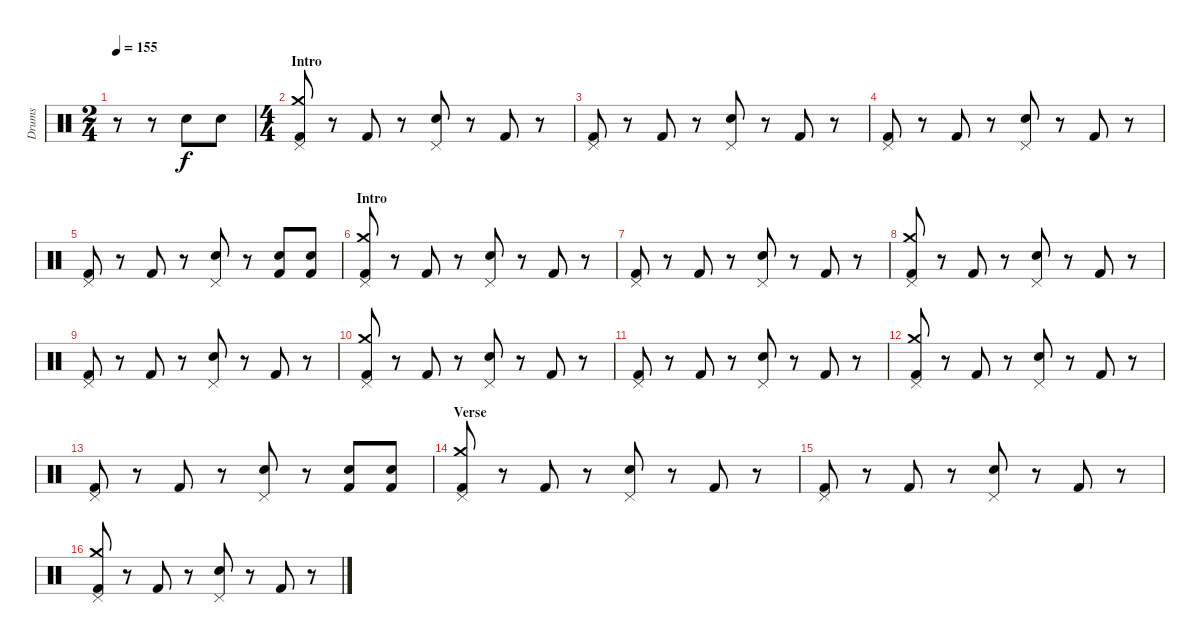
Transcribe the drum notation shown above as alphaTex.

\track ("Drums" "Drums") {instrument percussion}
\staff {score}
\articulation defaults
\ts (2 4)
\tempo 155
\clef neutral
\ks c
r.8{dy f} r.8 "Snare (hit) 2".8 "Snare (hit) 2".8 |
\ts (4 4)
\section ("" "Intro")
("Pedal Hi-Hat (hit)" "Crash medium (hit)" "Kick (hit) 2").8 r.8 "Kick (hit) 2".8 r.8 ("Pedal Hi-Hat (hit)" "Snare (hit) 2").8 r.8 "Kick (hit) 2".8 r.8 |
("Pedal Hi-Hat (hit)" "Kick (hit) 2").8 r.8 "Kick (hit) 2".8 r.8 ("Pedal Hi-Hat (hit)" "Snare (hit) 2").8 r.8 "Kick (hit) 2".8 r.8 |
("Pedal Hi-Hat (hit)" "Kick (hit) 2").8 r.8 "Kick (hit) 2".8 r.8 ("Pedal Hi-Hat (hit)" "Snare (hit) 2").8 r.8 "Kick (hit) 2".8 r.8 |
("Pedal Hi-Hat (hit)" "Kick (hit) 2").8 r.8 "Kick (hit) 2".8 r.8 ("Pedal Hi-Hat (hit)" "Snare (hit) 2").8 r.8 ("Snare (hit) 2" "Kick (hit) 2").8 ("Snare (hit) 2" "Kick (hit) 2").8 |
\section ("" "Intro")
("Pedal Hi-Hat (hit)" "Crash medium (hit)" "Kick (hit) 2").8 r.8 "Kick (hit) 2".8 r.8 ("Pedal Hi-Hat (hit)" "Snare (hit) 2").8 r.8 "Kick (hit) 2".8 r.8 |
("Pedal Hi-Hat (hit)" "Kick (hit) 2").8 r.8 "Kick (hit) 2".8 r.8 ("Pedal Hi-Hat (hit)" "Snare (hit) 2").8 r.8 "Kick (hit) 2".8 r.8 |
("Pedal Hi-Hat (hit)" "Crash medium (hit)" "Kick (hit) 2").8 r.8 "Kick (hit) 2".8 r.8 ("Pedal Hi-Hat (hit)" "Snare (hit) 2").8 r.8 "Kick (hit) 2".8 r.8 |
("Pedal Hi-Hat (hit)" "Kick (hit) 2").8 r.8 "Kick (hit) 2".8 r.8 ("Pedal Hi-Hat (hit)" "Snare (hit) 2").8 r.8 "Kick (hit) 2".8 r.8 |
("Pedal Hi-Hat (hit)" "Crash medium (hit)" "Kick (hit) 2").8 r.8 "Kick (hit) 2".8 r.8 ("Pedal Hi-Hat (hit)" "Snare (hit) 2").8 r.8 "Kick (hit) 2".8 r.8 |
("Pedal Hi-Hat (hit)" "Kick (hit) 2").8 r.8 "Kick (hit) 2".8 r.8 ("Pedal Hi-Hat (hit)" "Snare (hit) 2").8 r.8 "Kick (hit) 2".8 r.8 |
("Pedal Hi-Hat (hit)" "Crash medium (hit)" "Kick (hit) 2").8 r.8 "Kick (hit) 2".8 r.8 ("Pedal Hi-Hat (hit)" "Snare (hit) 2").8 r.8 "Kick (hit) 2".8 r.8 |
("Pedal Hi-Hat (hit)" "Kick (hit) 2").8 r.8 "Kick (hit) 2".8 r.8 ("Pedal Hi-Hat (hit)" "Snare (hit) 2").8 r.8 ("Snare (hit) 2" "Kick (hit) 2").8 ("Snare (hit) 2" "Kick (hit) 2").8 |
\section ("" "Verse")
("Pedal Hi-Hat (hit)" "Crash medium (hit)" "Kick (hit) 2").8 r.8 "Kick (hit) 2".8 r.8 ("Pedal Hi-Hat (hit)" "Snare (hit) 2").8 r.8 "Kick (hit) 2".8 r.8 |
("Pedal Hi-Hat (hit)" "Kick (hit) 2").8 r.8 "Kick (hit) 2".8 r.8 ("Pedal Hi-Hat (hit)" "Snare (hit) 2").8 r.8 "Kick (hit) 2".8 r.8 |
("Pedal Hi-Hat (hit)" "Crash medium (hit)" "Kick (hit) 2").8 r.8 "Kick (hit) 2".8 r.8 ("Pedal Hi-Hat (hit)" "Snare (hit) 2").8 r.8 "Kick (hit) 2".8 r.8
